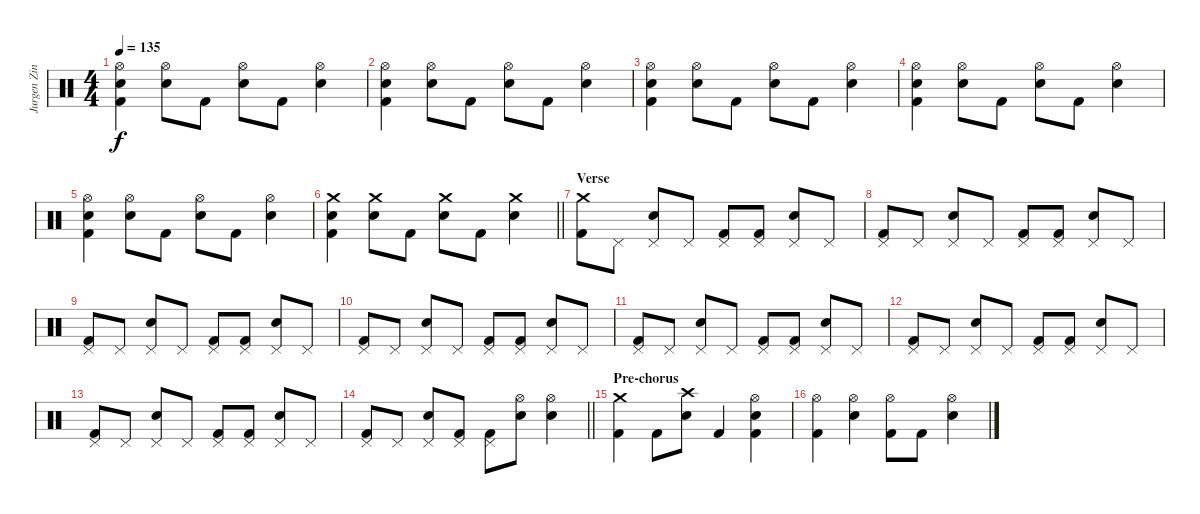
\track ("Jurgen Zing" "Jurgen Zin") {instrument percussion}
\staff {score}
\articulation defaults
\ts (4 4)
\tempo 135
\clef neutral
\ks c
("Hi-Hat (open)" "Electric Snare (hit)" "Kick (hit) 2").4{dy f} ("Hi-Hat (open)" "Electric Snare (hit)").8 "Kick (hit) 2".8 ("Hi-Hat (open)" "Electric Snare (hit)").8 "Kick (hit) 2".8 ("Hi-Hat (open)" "Electric Snare (hit)").4 |
("Hi-Hat (open)" "Electric Snare (hit)" "Kick (hit) 2").4 ("Hi-Hat (open)" "Electric Snare (hit)").8 "Kick (hit) 2".8 ("Hi-Hat (open)" "Electric Snare (hit)").8 "Kick (hit) 2".8 ("Hi-Hat (open)" "Electric Snare (hit)").4 |
("Hi-Hat (open)" "Electric Snare (hit)" "Kick (hit) 2").4 ("Hi-Hat (open)" "Electric Snare (hit)").8 "Kick (hit) 2".8 ("Hi-Hat (open)" "Electric Snare (hit)").8 "Kick (hit) 2".8 ("Hi-Hat (open)" "Electric Snare (hit)").4 |
("Hi-Hat (open)" "Electric Snare (hit)" "Kick (hit) 2").4 ("Hi-Hat (open)" "Electric Snare (hit)").8 "Kick (hit) 2".8 ("Hi-Hat (open)" "Electric Snare (hit)").8 "Kick (hit) 2".8 ("Hi-Hat (open)" "Electric Snare (hit)").4 |
("Hi-Hat (open)" "Electric Snare (hit)" "Kick (hit) 2").4 ("Hi-Hat (open)" "Electric Snare (hit)").8 "Kick (hit) 2".8 ("Hi-Hat (open)" "Electric Snare (hit)").8 "Kick (hit) 2".8 ("Hi-Hat (open)" "Electric Snare (hit)").4 |
\barLineRight lightlight
("Crash medium (hit)" "Electric Snare (hit)" "Kick (hit) 2").4 ("Crash medium (hit)" "Electric Snare (hit)").8 "Kick (hit) 2".8 ("Crash medium (hit)" "Electric Snare (hit)").8 "Kick (hit) 2".8 ("Crash medium (hit)" "Electric Snare (hit)").4 |
\section ("" "Verse")
("Crash medium (hit)" "Kick (hit) 2").8 "Pedal Hi-Hat (hit)".8 ("Pedal Hi-Hat (hit)" "Electric Snare (hit)").8 "Pedal Hi-Hat (hit)".8 ("Pedal Hi-Hat (hit)" "Kick (hit) 2").8 ("Pedal Hi-Hat (hit)" "Kick (hit) 2").8 ("Pedal Hi-Hat (hit)" "Electric Snare (hit)").8 "Pedal Hi-Hat (hit)".8 |
("Pedal Hi-Hat (hit)" "Kick (hit) 2").8 "Pedal Hi-Hat (hit)".8 ("Pedal Hi-Hat (hit)" "Electric Snare (hit)").8 "Pedal Hi-Hat (hit)".8 ("Pedal Hi-Hat (hit)" "Kick (hit) 2").8 ("Pedal Hi-Hat (hit)" "Kick (hit) 2").8 ("Pedal Hi-Hat (hit)" "Electric Snare (hit)").8 "Pedal Hi-Hat (hit)".8 |
("Pedal Hi-Hat (hit)" "Kick (hit) 2").8 "Pedal Hi-Hat (hit)".8 ("Pedal Hi-Hat (hit)" "Electric Snare (hit)").8 "Pedal Hi-Hat (hit)".8 ("Pedal Hi-Hat (hit)" "Kick (hit) 2").8 ("Pedal Hi-Hat (hit)" "Kick (hit) 2").8 ("Pedal Hi-Hat (hit)" "Electric Snare (hit)").8 "Pedal Hi-Hat (hit)".8 |
("Pedal Hi-Hat (hit)" "Kick (hit) 2").8 "Pedal Hi-Hat (hit)".8 ("Pedal Hi-Hat (hit)" "Electric Snare (hit)").8 "Pedal Hi-Hat (hit)".8 ("Pedal Hi-Hat (hit)" "Kick (hit) 2").8 ("Pedal Hi-Hat (hit)" "Kick (hit) 2").8 ("Pedal Hi-Hat (hit)" "Electric Snare (hit)").8 "Pedal Hi-Hat (hit)".8 |
("Pedal Hi-Hat (hit)" "Kick (hit) 2").8 "Pedal Hi-Hat (hit)".8 ("Pedal Hi-Hat (hit)" "Electric Snare (hit)").8 "Pedal Hi-Hat (hit)".8 ("Pedal Hi-Hat (hit)" "Kick (hit) 2").8 ("Pedal Hi-Hat (hit)" "Kick (hit) 2").8 ("Pedal Hi-Hat (hit)" "Electric Snare (hit)").8 "Pedal Hi-Hat (hit)".8 |
("Pedal Hi-Hat (hit)" "Kick (hit) 2").8 "Pedal Hi-Hat (hit)".8 ("Pedal Hi-Hat (hit)" "Electric Snare (hit)").8 "Pedal Hi-Hat (hit)".8 ("Pedal Hi-Hat (hit)" "Kick (hit) 2").8 ("Pedal Hi-Hat (hit)" "Kick (hit) 2").8 ("Pedal Hi-Hat (hit)" "Electric Snare (hit)").8 "Pedal Hi-Hat (hit)".8 |
("Pedal Hi-Hat (hit)" "Kick (hit) 2").8 "Pedal Hi-Hat (hit)".8 ("Pedal Hi-Hat (hit)" "Electric Snare (hit)").8 "Pedal Hi-Hat (hit)".8 ("Pedal Hi-Hat (hit)" "Kick (hit) 2").8 ("Pedal Hi-Hat (hit)" "Kick (hit) 2").8 ("Pedal Hi-Hat (hit)" "Electric Snare (hit)").8 "Pedal Hi-Hat (hit)".8 |
\barLineRight lightlight
("Pedal Hi-Hat (hit)" "Kick (hit) 2").8 "Pedal Hi-Hat (hit)".8 ("Pedal Hi-Hat (hit)" "Electric Snare (hit)").8 ("Pedal Hi-Hat (hit)" "Kick (hit) 2").8 ("Pedal Hi-Hat (hit)" "Kick (hit) 2").8 ("Hi-Hat (open)" "Electric Snare (hit)").8 ("Hi-Hat (open)" "Electric Snare (hit)").4 |
\section ("" "Pre-chorus")
("Crash medium (hit)" "Kick (hit) 2").4 "Kick (hit) 2".8 ("Crash high (hit)" "Electric Snare (hit)").8 "Kick (hit) 2".4 ("Hi-Hat (open)" "Electric Snare (hit)" "Kick (hit) 2").4 |
("Hi-Hat (open)" "Kick (hit) 2").4 ("Hi-Hat (open)" "Electric Snare (hit)").4 ("Hi-Hat (open)" "Kick (hit) 2").8 "Kick (hit) 2".8 ("Hi-Hat (open)" "Electric Snare (hit)").4
